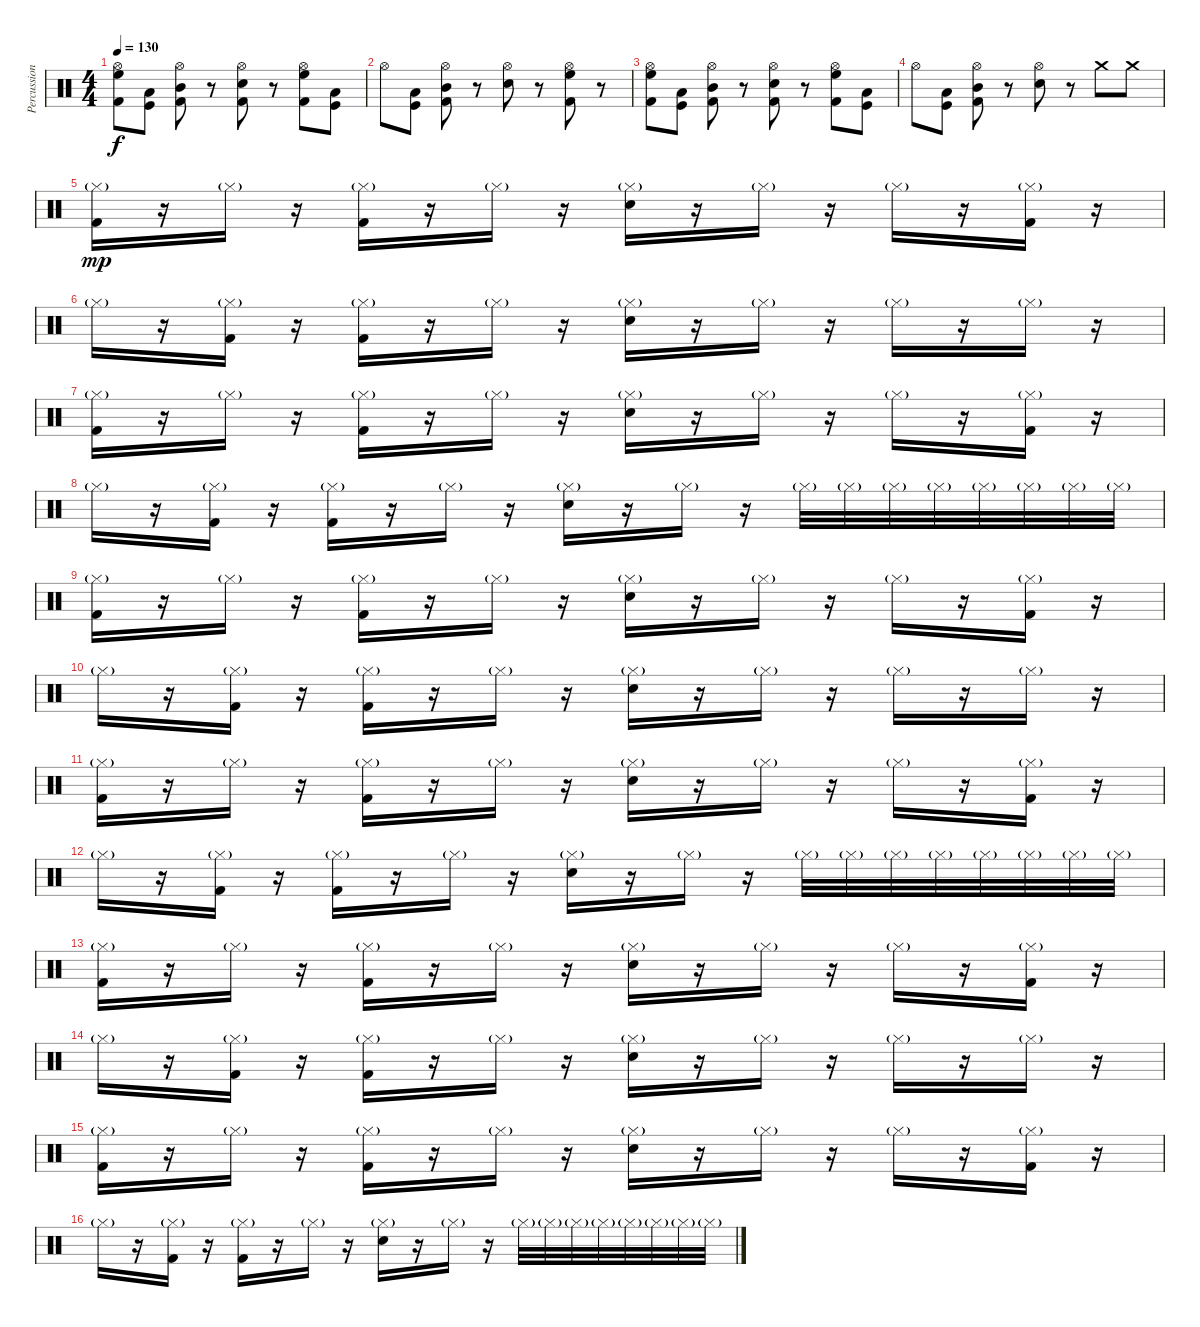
\track ("Percussion" "Percussion") {instrument percussion}
\staff {score}
\articulation defaults
\ts (4 4)
\tempo 130
\clef neutral
\ks c
("Hi-Hat (open)" "High Floor Tom (hit)" "Kick (hit) 2").8{dy f} ("Low Tom (hit)" "Kick (hit)").8 ("Hi-Hat (open)" "Mid Tom (hit)" "Kick (hit) 2").8 r.8 ("Hi-Hat (open)" "Snare (hit) 2" "Kick (hit) 2").8 r.8 ("Hi-Hat (open)" "High Floor Tom (hit)" "Kick (hit) 2").8 ("Low Tom (hit)" "Kick (hit)").8 |
"Hi-Hat (open)".8 ("Low Tom (hit)" "Kick (hit)").8 ("Hi-Hat (open)" "Mid Tom (hit)" "Kick (hit) 2").8 r.8 ("Hi-Hat (open)" "Snare (hit) 2").8 r.8 ("Hi-Hat (open)" "High Floor Tom (hit)" "Kick (hit) 2").8 r.8 |
("Hi-Hat (open)" "High Floor Tom (hit)" "Kick (hit) 2").8 ("Low Tom (hit)" "Kick (hit)").8 ("Hi-Hat (open)" "Mid Tom (hit)" "Kick (hit) 2").8 r.8 ("Hi-Hat (open)" "Snare (hit) 2" "Kick (hit) 2").8 r.8 ("Hi-Hat (open)" "High Floor Tom (hit)" "Kick (hit) 2").8 ("Low Tom (hit)" "Kick (hit)").8 |
"Hi-Hat (open)".8 ("Low Tom (hit)" "Kick (hit)").8 ("Hi-Hat (open)" "Mid Tom (hit)" "Kick (hit) 2").8 r.8 ("Hi-Hat (open)" "Snare (hit) 2").8 r.8 "Crash medium (hit)".8 "Crash medium (hit)".8 |
("Hi-Hat (closed)"{g} "Kick (hit) 2").16{dy mp} r.16 "Hi-Hat (closed)"{g}.16 r.16 ("Hi-Hat (closed)"{g} "Kick (hit) 2").16 r.16 "Hi-Hat (closed)"{g}.16 r.16 ("Hi-Hat (closed)"{g} "Snare (hit) 2").16 r.16 "Hi-Hat (closed)"{g}.16 r.16 "Hi-Hat (closed)"{g}.16 r.16 ("Hi-Hat (closed)"{g} "Kick (hit) 2").16 r.16 |
"Hi-Hat (closed)"{g}.16 r.16 ("Hi-Hat (closed)"{g} "Kick (hit) 2").16 r.16 ("Hi-Hat (closed)"{g} "Kick (hit) 2").16 r.16 "Hi-Hat (closed)"{g}.16 r.16 ("Hi-Hat (closed)"{g} "Snare (hit) 2").16 r.16 "Hi-Hat (closed)"{g}.16 r.16 "Hi-Hat (closed)"{g}.16 r.16 "Hi-Hat (closed)"{g}.16 r.16 |
("Hi-Hat (closed)"{g} "Kick (hit) 2").16 r.16 "Hi-Hat (closed)"{g}.16 r.16 ("Hi-Hat (closed)"{g} "Kick (hit) 2").16 r.16 "Hi-Hat (closed)"{g}.16 r.16 ("Hi-Hat (closed)"{g} "Snare (hit) 2").16 r.16 "Hi-Hat (closed)"{g}.16 r.16 "Hi-Hat (closed)"{g}.16 r.16 ("Hi-Hat (closed)"{g} "Kick (hit) 2").16 r.16 |
"Hi-Hat (closed)"{g}.16 r.16 ("Hi-Hat (closed)"{g} "Kick (hit) 2").16 r.16 ("Hi-Hat (closed)"{g} "Kick (hit) 2").16 r.16 "Hi-Hat (closed)"{g}.16 r.16 ("Hi-Hat (closed)"{g} "Snare (hit) 2").16 r.16 "Hi-Hat (closed)"{g}.16 r.16 "Hi-Hat (closed)"{g}.32 "Hi-Hat (closed)"{g}.32 "Hi-Hat (closed)"{g}.32 "Hi-Hat (closed)"{g}.32 "Hi-Hat (closed)"{g}.32 "Hi-Hat (closed)"{g}.32 "Hi-Hat (closed)"{g}.32 "Hi-Hat (closed)"{g}.32 |
("Hi-Hat (closed)"{g} "Kick (hit) 2").16 r.16 "Hi-Hat (closed)"{g}.16 r.16 ("Hi-Hat (closed)"{g} "Kick (hit) 2").16 r.16 "Hi-Hat (closed)"{g}.16 r.16 ("Hi-Hat (closed)"{g} "Snare (hit) 2").16 r.16 "Hi-Hat (closed)"{g}.16 r.16 "Hi-Hat (closed)"{g}.16 r.16 ("Hi-Hat (closed)"{g} "Kick (hit) 2").16 r.16 |
"Hi-Hat (closed)"{g}.16 r.16 ("Hi-Hat (closed)"{g} "Kick (hit) 2").16 r.16 ("Hi-Hat (closed)"{g} "Kick (hit) 2").16 r.16 "Hi-Hat (closed)"{g}.16 r.16 ("Hi-Hat (closed)"{g} "Snare (hit) 2").16 r.16 "Hi-Hat (closed)"{g}.16 r.16 "Hi-Hat (closed)"{g}.16 r.16 "Hi-Hat (closed)"{g}.16 r.16 |
("Hi-Hat (closed)"{g} "Kick (hit) 2").16 r.16 "Hi-Hat (closed)"{g}.16 r.16 ("Hi-Hat (closed)"{g} "Kick (hit) 2").16 r.16 "Hi-Hat (closed)"{g}.16 r.16 ("Hi-Hat (closed)"{g} "Snare (hit) 2").16 r.16 "Hi-Hat (closed)"{g}.16 r.16 "Hi-Hat (closed)"{g}.16 r.16 ("Hi-Hat (closed)"{g} "Kick (hit) 2").16 r.16 |
"Hi-Hat (closed)"{g}.16 r.16 ("Hi-Hat (closed)"{g} "Kick (hit) 2").16 r.16 ("Hi-Hat (closed)"{g} "Kick (hit) 2").16 r.16 "Hi-Hat (closed)"{g}.16 r.16 ("Hi-Hat (closed)"{g} "Snare (hit) 2").16 r.16 "Hi-Hat (closed)"{g}.16 r.16 "Hi-Hat (closed)"{g}.32 "Hi-Hat (closed)"{g}.32 "Hi-Hat (closed)"{g}.32 "Hi-Hat (closed)"{g}.32 "Hi-Hat (closed)"{g}.32 "Hi-Hat (closed)"{g}.32 "Hi-Hat (closed)"{g}.32 "Hi-Hat (closed)"{g}.32 |
("Hi-Hat (closed)"{g} "Kick (hit) 2").16 r.16 "Hi-Hat (closed)"{g}.16 r.16 ("Hi-Hat (closed)"{g} "Kick (hit) 2").16 r.16 "Hi-Hat (closed)"{g}.16 r.16 ("Hi-Hat (closed)"{g} "Snare (hit) 2").16 r.16 "Hi-Hat (closed)"{g}.16 r.16 "Hi-Hat (closed)"{g}.16 r.16 ("Hi-Hat (closed)"{g} "Kick (hit) 2").16 r.16 |
"Hi-Hat (closed)"{g}.16 r.16 ("Hi-Hat (closed)"{g} "Kick (hit) 2").16 r.16 ("Hi-Hat (closed)"{g} "Kick (hit) 2").16 r.16 "Hi-Hat (closed)"{g}.16 r.16 ("Hi-Hat (closed)"{g} "Snare (hit) 2").16 r.16 "Hi-Hat (closed)"{g}.16 r.16 "Hi-Hat (closed)"{g}.16 r.16 "Hi-Hat (closed)"{g}.16 r.16 |
("Hi-Hat (closed)"{g} "Kick (hit) 2").16 r.16 "Hi-Hat (closed)"{g}.16 r.16 ("Hi-Hat (closed)"{g} "Kick (hit) 2").16 r.16 "Hi-Hat (closed)"{g}.16 r.16 ("Hi-Hat (closed)"{g} "Snare (hit) 2").16 r.16 "Hi-Hat (closed)"{g}.16 r.16 "Hi-Hat (closed)"{g}.16 r.16 ("Hi-Hat (closed)"{g} "Kick (hit) 2").16 r.16 |
"Hi-Hat (closed)"{g}.16 r.16 ("Hi-Hat (closed)"{g} "Kick (hit) 2").16 r.16 ("Hi-Hat (closed)"{g} "Kick (hit) 2").16 r.16 "Hi-Hat (closed)"{g}.16 r.16 ("Hi-Hat (closed)"{g} "Snare (hit) 2").16 r.16 "Hi-Hat (closed)"{g}.16 r.16 "Hi-Hat (closed)"{g}.32 "Hi-Hat (closed)"{g}.32 "Hi-Hat (closed)"{g}.32 "Hi-Hat (closed)"{g}.32 "Hi-Hat (closed)"{g}.32 "Hi-Hat (closed)"{g}.32 "Hi-Hat (closed)"{g}.32 "Hi-Hat (closed)"{g}.32
